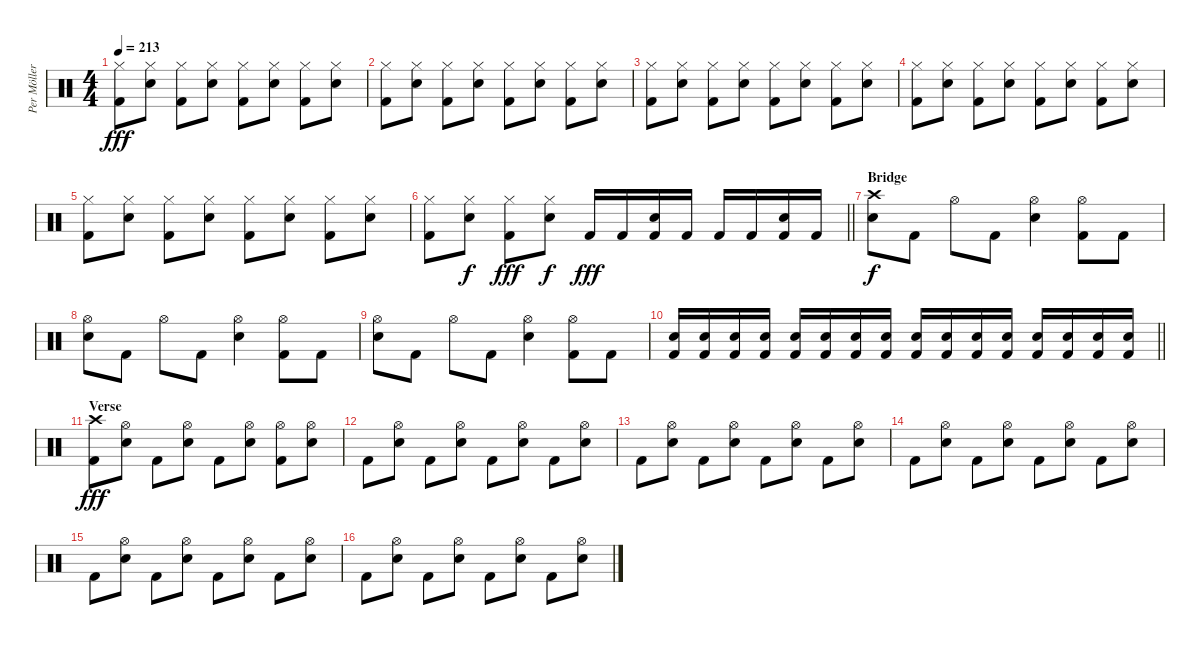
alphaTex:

\track ("Per Möller Jensen" "Per Möller") {instrument percussion}
\staff {score}
\articulation defaults
\ts (4 4)
\tempo 213
\clef neutral
\ks c
("Hi-Hat (closed)" "Kick (hit) 2").8{dy fff} ("Hi-Hat (closed)" "Electric Snare (hit)").8 ("Hi-Hat (closed)" "Kick (hit) 2").8 ("Hi-Hat (closed)" "Electric Snare (hit)").8 ("Hi-Hat (closed)" "Kick (hit) 2").8 ("Hi-Hat (closed)" "Electric Snare (hit)").8 ("Hi-Hat (closed)" "Kick (hit) 2").8 ("Hi-Hat (closed)" "Electric Snare (hit)").8 |
("Hi-Hat (closed)" "Kick (hit) 2").8 ("Hi-Hat (closed)" "Electric Snare (hit)").8 ("Hi-Hat (closed)" "Kick (hit) 2").8 ("Hi-Hat (closed)" "Electric Snare (hit)").8 ("Hi-Hat (closed)" "Kick (hit) 2").8 ("Hi-Hat (closed)" "Electric Snare (hit)").8 ("Hi-Hat (closed)" "Kick (hit) 2").8 ("Hi-Hat (closed)" "Electric Snare (hit)").8 |
("Hi-Hat (closed)" "Kick (hit) 2").8 ("Hi-Hat (closed)" "Electric Snare (hit)").8 ("Hi-Hat (closed)" "Kick (hit) 2").8 ("Hi-Hat (closed)" "Electric Snare (hit)").8 ("Hi-Hat (closed)" "Kick (hit) 2").8 ("Hi-Hat (closed)" "Electric Snare (hit)").8 ("Hi-Hat (closed)" "Kick (hit) 2").8 ("Hi-Hat (closed)" "Electric Snare (hit)").8 |
("Hi-Hat (closed)" "Kick (hit) 2").8 ("Hi-Hat (closed)" "Electric Snare (hit)").8 ("Hi-Hat (closed)" "Kick (hit) 2").8 ("Hi-Hat (closed)" "Electric Snare (hit)").8 ("Hi-Hat (closed)" "Kick (hit) 2").8 ("Hi-Hat (closed)" "Electric Snare (hit)").8 ("Hi-Hat (closed)" "Kick (hit) 2").8 ("Hi-Hat (closed)" "Electric Snare (hit)").8 |
("Hi-Hat (closed)" "Kick (hit) 2").8 ("Hi-Hat (closed)" "Electric Snare (hit)").8 ("Hi-Hat (closed)" "Kick (hit) 2").8 ("Hi-Hat (closed)" "Electric Snare (hit)").8 ("Hi-Hat (closed)" "Kick (hit) 2").8 ("Hi-Hat (closed)" "Electric Snare (hit)").8 ("Hi-Hat (closed)" "Kick (hit) 2").8 ("Hi-Hat (closed)" "Electric Snare (hit)").8 |
\barLineRight lightlight
("Hi-Hat (closed)" "Kick (hit) 2").8 ("Hi-Hat (closed)" "Electric Snare (hit)").8{dy f} ("Hi-Hat (closed)" "Kick (hit) 2").8{dy fff} ("Hi-Hat (closed)" "Electric Snare (hit)").8{dy f} "Kick (hit) 2".16{dy fff} "Kick (hit) 2".16 ("Electric Snare (hit)" "Kick (hit) 2").16 "Kick (hit) 2".16 "Kick (hit) 2".16 "Kick (hit) 2".16 ("Electric Snare (hit)" "Kick (hit) 2").16 "Kick (hit) 2".16 |
\section ("" "Bridge")
("Crash high (hit)" "Electric Snare (hit)").8{dy f} "Kick (hit) 2".8 "Hi-Hat (open)".8 "Kick (hit) 2".8 ("Hi-Hat (open)" "Electric Snare (hit)").4 ("Hi-Hat (open)" "Kick (hit) 2").8 "Kick (hit) 2".8 |
("Hi-Hat (open)" "Electric Snare (hit)").8 "Kick (hit) 2".8 "Hi-Hat (open)".8 "Kick (hit) 2".8 ("Hi-Hat (open)" "Electric Snare (hit)").4 ("Hi-Hat (open)" "Kick (hit) 2").8 "Kick (hit) 2".8 |
("Hi-Hat (open)" "Electric Snare (hit)").8 "Kick (hit) 2".8 "Hi-Hat (open)".8 "Kick (hit) 2".8 ("Hi-Hat (open)" "Electric Snare (hit)").4 ("Hi-Hat (open)" "Kick (hit) 2").8 "Kick (hit) 2".8 |
\barLineRight lightlight
("Electric Snare (hit)" "Kick (hit) 2").16 ("Electric Snare (hit)" "Kick (hit) 2").16 ("Electric Snare (hit)" "Kick (hit) 2").16 ("Electric Snare (hit)" "Kick (hit) 2").16 ("Electric Snare (hit)" "Kick (hit) 2").16 ("Electric Snare (hit)" "Kick (hit) 2").16 ("Electric Snare (hit)" "Kick (hit) 2").16 ("Electric Snare (hit)" "Kick (hit) 2").16 ("Electric Snare (hit)" "Kick (hit) 2").16 ("Electric Snare (hit)" "Kick (hit) 2").16 ("Electric Snare (hit)" "Kick (hit) 2").16 ("Electric Snare (hit)" "Kick (hit) 2").16 ("Electric Snare (hit)" "Kick (hit) 2").16 ("Electric Snare (hit)" "Kick (hit) 2").16 ("Electric Snare (hit)" "Kick (hit) 2").16 ("Electric Snare (hit)" "Kick (hit) 2").16 |
\section ("" "Verse")
("Crash high (hit)" "Kick (hit) 2").8{dy fff} ("Hi-Hat (open)" "Electric Snare (hit)").8 "Kick (hit) 2".8 ("Hi-Hat (open)" "Electric Snare (hit)").8 "Kick (hit) 2".8 ("Hi-Hat (open)" "Electric Snare (hit)").8 ("Hi-Hat (open)" "Kick (hit) 2").8 ("Hi-Hat (open)" "Electric Snare (hit)").8 |
"Kick (hit) 2".8 ("Hi-Hat (open)" "Electric Snare (hit)").8 "Kick (hit) 2".8 ("Hi-Hat (open)" "Electric Snare (hit)").8 "Kick (hit) 2".8 ("Hi-Hat (open)" "Electric Snare (hit)").8 "Kick (hit) 2".8 ("Hi-Hat (open)" "Electric Snare (hit)").8 |
"Kick (hit) 2".8 ("Hi-Hat (open)" "Electric Snare (hit)").8 "Kick (hit) 2".8 ("Hi-Hat (open)" "Electric Snare (hit)").8 "Kick (hit) 2".8 ("Hi-Hat (open)" "Electric Snare (hit)").8 "Kick (hit) 2".8 ("Hi-Hat (open)" "Electric Snare (hit)").8 |
"Kick (hit) 2".8 ("Hi-Hat (open)" "Electric Snare (hit)").8 "Kick (hit) 2".8 ("Hi-Hat (open)" "Electric Snare (hit)").8 "Kick (hit) 2".8 ("Hi-Hat (open)" "Electric Snare (hit)").8 "Kick (hit) 2".8 ("Hi-Hat (open)" "Electric Snare (hit)").8 |
"Kick (hit) 2".8 ("Hi-Hat (open)" "Electric Snare (hit)").8 "Kick (hit) 2".8 ("Hi-Hat (open)" "Electric Snare (hit)").8 "Kick (hit) 2".8 ("Hi-Hat (open)" "Electric Snare (hit)").8 "Kick (hit) 2".8 ("Hi-Hat (open)" "Electric Snare (hit)").8 |
"Kick (hit) 2".8 ("Hi-Hat (open)" "Electric Snare (hit)").8 "Kick (hit) 2".8 ("Hi-Hat (open)" "Electric Snare (hit)").8 "Kick (hit) 2".8 ("Hi-Hat (open)" "Electric Snare (hit)").8 "Kick (hit) 2".8 ("Hi-Hat (open)" "Electric Snare (hit)").8
